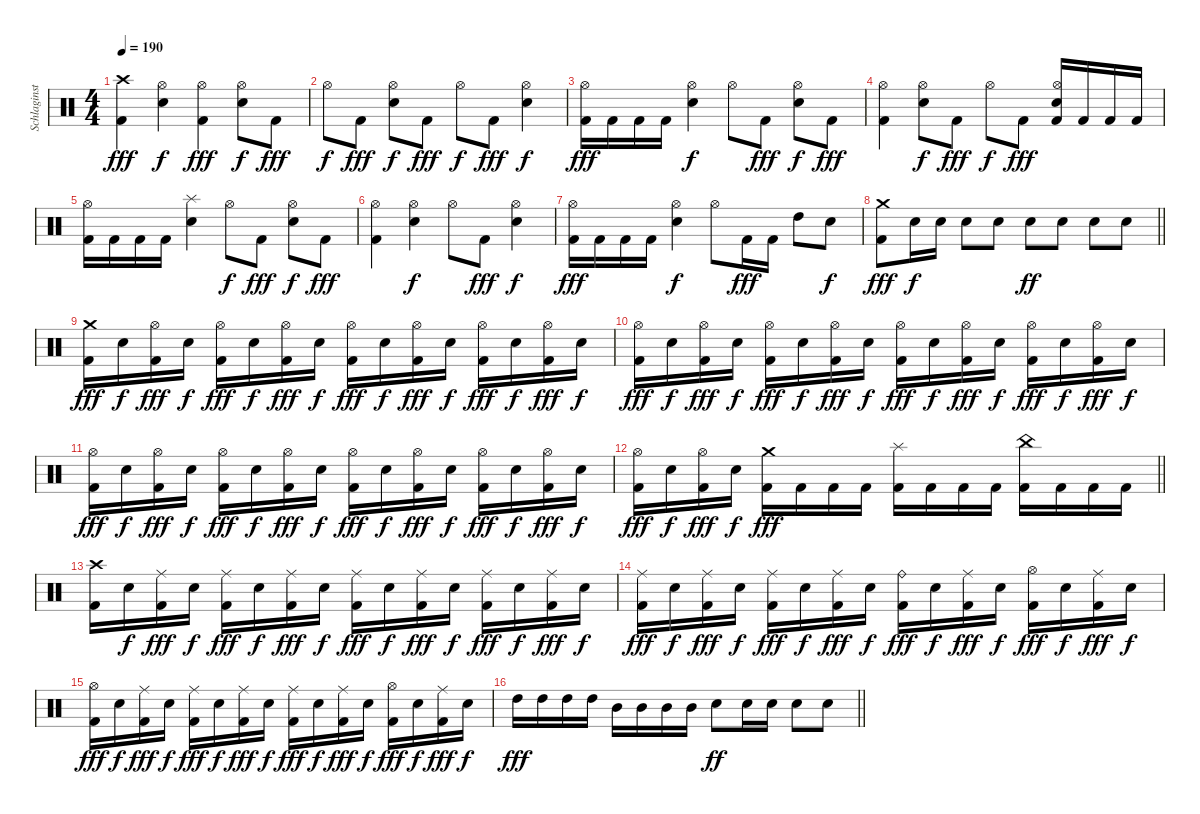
\track ("Schlaginstrumente - Auswahl" "Schlaginst") {instrument percussion}
\staff {score}
\articulation defaults
\ts (4 4)
\tempo 190
\clef neutral
\ks c
("Crash high (hit)" "Kick (hit) 2").4{dy fff} ("Hi-Hat (open)" "Snare (hit) 2").4{dy f} ("Hi-Hat (open)" "Kick (hit) 2").4{dy fff} ("Hi-Hat (open)" "Snare (hit) 2").8{dy f} "Kick (hit) 2".8{dy fff} |
"Hi-Hat (open)".8{dy f} "Kick (hit) 2".8{dy fff} ("Hi-Hat (open)" "Snare (hit) 2").8{dy f} "Kick (hit) 2".8{dy fff} "Hi-Hat (open)".8{dy f} "Kick (hit) 2".8{dy fff} ("Hi-Hat (open)" "Snare (hit) 2").4{dy f} |
("Hi-Hat (open)" "Kick (hit) 2").16{dy fff} "Kick (hit) 2".16 "Kick (hit) 2".16 "Kick (hit) 2".16 ("Hi-Hat (open)" "Snare (hit) 2").4{dy f} "Hi-Hat (open)".8 "Kick (hit) 2".8{dy fff} ("Hi-Hat (open)" "Snare (hit) 2").8{dy f} "Kick (hit) 2".8{dy fff} |
("Hi-Hat (open)" "Kick (hit) 2").4 ("Hi-Hat (open)" "Snare (hit) 2").8{dy f} "Kick (hit) 2".8{dy fff} "Hi-Hat (open)".8{dy f} "Kick (hit) 2".8{dy fff} ("Hi-Hat (open)" "Snare (hit) 2" "Kick (hit) 2").16 "Kick (hit) 2".16 "Kick (hit) 2".16 "Kick (hit) 2".16 |
("Hi-Hat (open)" "Kick (hit) 2").16 "Kick (hit) 2".16 "Kick (hit) 2".16 "Kick (hit) 2".16 ("Splash (hit)" "Snare (hit) 2").4 "Hi-Hat (open)".8{dy f} "Kick (hit) 2".8{dy fff} ("Hi-Hat (open)" "Snare (hit) 2").8{dy f} "Kick (hit) 2".8{dy fff} |
("Hi-Hat (open)" "Kick (hit) 2").4 ("Hi-Hat (open)" "Snare (hit) 2").4{dy f} "Hi-Hat (open)".8 "Kick (hit) 2".8{dy fff} ("Hi-Hat (open)" "Snare (hit) 2").4{dy f} |
("Hi-Hat (open)" "Kick (hit) 2").16{dy fff} "Kick (hit) 2".16 "Kick (hit) 2".16 "Kick (hit) 2".16 ("Hi-Hat (open)" "Snare (hit) 2").4{dy f} "Hi-Hat (open)".8 "Kick (hit) 2".16{dy fff} "Kick (hit) 2".16 "High Tom (hit)".8 "Snare (hit) 2".8{dy f} |
\barLineRight lightlight
("Crash medium (hit)" "Kick (hit) 2").8{dy fff} "Snare (hit) 2".16{dy f} "Snare (hit) 2".16 "Snare (hit) 2".8 "Snare (hit) 2".8 "Snare (hit) 2".8{dy ff} "Snare (hit) 2".8 "Snare (hit) 2".8 "Snare (hit) 2".8 |
("Crash medium (hit)" "Kick (hit) 2").16{dy fff} "Snare (hit) 2".16{dy f} ("Hi-Hat (open)" "Kick (hit) 2").16{dy fff} "Snare (hit) 2".16{dy f} ("Hi-Hat (open)" "Kick (hit) 2").16{dy fff} "Snare (hit) 2".16{dy f} ("Hi-Hat (open)" "Kick (hit) 2").16{dy fff} "Snare (hit) 2".16{dy f} ("Hi-Hat (open)" "Kick (hit) 2").16{dy fff} "Snare (hit) 2".16{dy f} ("Hi-Hat (open)" "Kick (hit) 2").16{dy fff} "Snare (hit) 2".16{dy f} ("Hi-Hat (open)" "Kick (hit) 2").16{dy fff} "Snare (hit) 2".16{dy f} ("Hi-Hat (open)" "Kick (hit) 2").16{dy fff} "Snare (hit) 2".16{dy f} |
("Hi-Hat (open)" "Kick (hit) 2").16{dy fff} "Snare (hit) 2".16{dy f} ("Hi-Hat (open)" "Kick (hit) 2").16{dy fff} "Snare (hit) 2".16{dy f} ("Hi-Hat (open)" "Kick (hit) 2").16{dy fff} "Snare (hit) 2".16{dy f} ("Hi-Hat (open)" "Kick (hit) 2").16{dy fff} "Snare (hit) 2".16{dy f} ("Hi-Hat (open)" "Kick (hit) 2").16{dy fff} "Snare (hit) 2".16{dy f} ("Hi-Hat (open)" "Kick (hit) 2").16{dy fff} "Snare (hit) 2".16{dy f} ("Hi-Hat (open)" "Kick (hit) 2").16{dy fff} "Snare (hit) 2".16{dy f} ("Hi-Hat (open)" "Kick (hit) 2").16{dy fff} "Snare (hit) 2".16{dy f} |
("Hi-Hat (open)" "Kick (hit) 2").16{dy fff} "Snare (hit) 2".16{dy f} ("Hi-Hat (open)" "Kick (hit) 2").16{dy fff} "Snare (hit) 2".16{dy f} ("Hi-Hat (open)" "Kick (hit) 2").16{dy fff} "Snare (hit) 2".16{dy f} ("Hi-Hat (open)" "Kick (hit) 2").16{dy fff} "Snare (hit) 2".16{dy f} ("Hi-Hat (open)" "Kick (hit) 2").16{dy fff} "Snare (hit) 2".16{dy f} ("Hi-Hat (open)" "Kick (hit) 2").16{dy fff} "Snare (hit) 2".16{dy f} ("Hi-Hat (open)" "Kick (hit) 2").16{dy fff} "Snare (hit) 2".16{dy f} ("Hi-Hat (open)" "Kick (hit) 2").16{dy fff} "Snare (hit) 2".16{dy f} |
\barLineRight lightlight
("Hi-Hat (open)" "Kick (hit) 2").16{dy fff} "Snare (hit) 2".16{dy f} ("Hi-Hat (open)" "Kick (hit) 2").16{dy fff} "Snare (hit) 2".16{dy f} ("Crash medium (hit)" "Kick (hit) 2").16{dy fff} "Kick (hit) 2".16 "Kick (hit) 2".16 "Kick (hit) 2".16 ("Splash (hit)" "Kick (hit) 2").16 "Kick (hit) 2".16 "Kick (hit) 2".16 "Kick (hit) 2".16 ("China (hit)" "Kick (hit) 2").16 "Kick (hit) 2".16 "Kick (hit) 2".16 "Kick (hit) 2".16 |
("Crash high (hit)" "Kick (hit) 2").16 "Snare (hit) 2".16{dy f} ("Ride (middle)" "Kick (hit) 2").16{dy fff} "Snare (hit) 2".16{dy f} ("Ride (middle)" "Kick (hit) 2").16{dy fff} "Snare (hit) 2".16{dy f} ("Ride (middle)" "Kick (hit) 2").16{dy fff} "Snare (hit) 2".16{dy f} ("Ride (middle)" "Kick (hit) 2").16{dy fff} "Snare (hit) 2".16{dy f} ("Ride (middle)" "Kick (hit) 2").16{dy fff} "Snare (hit) 2".16{dy f} ("Ride (middle)" "Kick (hit) 2").16{dy fff} "Snare (hit) 2".16{dy f} ("Ride (middle)" "Kick (hit) 2").16{dy fff} "Snare (hit) 2".16{dy f} |
("Ride (middle)" "Kick (hit) 2").16{dy fff} "Snare (hit) 2".16{dy f} ("Ride (middle)" "Kick (hit) 2").16{dy fff} "Snare (hit) 2".16{dy f} ("Ride (middle)" "Kick (hit) 2").16{dy fff} "Snare (hit) 2".16{dy f} ("Ride (middle)" "Kick (hit) 2").16{dy fff} "Snare (hit) 2".16{dy f} ("Ride (bell)" "Kick (hit) 2").16{dy fff} "Snare (hit) 2".16{dy f} ("Ride (middle)" "Kick (hit) 2").16{dy fff} "Snare (hit) 2".16{dy f} ("Hi-Hat (open)" "Kick (hit) 2").16{dy fff} "Snare (hit) 2".16{dy f} ("Ride (middle)" "Kick (hit) 2").16{dy fff} "Snare (hit) 2".16{dy f} |
("Hi-Hat (open)" "Kick (hit) 2").16{dy fff} "Snare (hit) 2".16{dy f} ("Ride (middle)" "Kick (hit) 2").16{dy fff} "Snare (hit) 2".16{dy f} ("Ride (middle)" "Kick (hit) 2").16{dy fff} "Snare (hit) 2".16{dy f} ("Ride (middle)" "Kick (hit) 2").16{dy fff} "Snare (hit) 2".16{dy f} ("Ride (middle)" "Kick (hit) 2").16{dy fff} "Snare (hit) 2".16{dy f} ("Ride (middle)" "Kick (hit) 2").16{dy fff} "Snare (hit) 2".16{dy f} ("Hi-Hat (open)" "Kick (hit) 2").16{dy fff} "Snare (hit) 2".16{dy f} ("Ride (middle)" "Kick (hit) 2").16{dy fff} "Snare (hit) 2".16{dy f} |
\barLineRight lightlight "High Tom (hit)".16{dy fff} "High Tom (hit)".16 "High Tom (hit)".16 "High Tom (hit)".16 "Mid Tom (hit)".16 "Mid Tom (hit)".16 "Mid Tom (hit)".16 "Mid Tom (hit)".16 "Snare (hit) 2".8{dy ff} "Snare (hit) 2".16 "Snare (hit) 2".16 "Snare (hit) 2".8 "Snare (hit) 2".8
